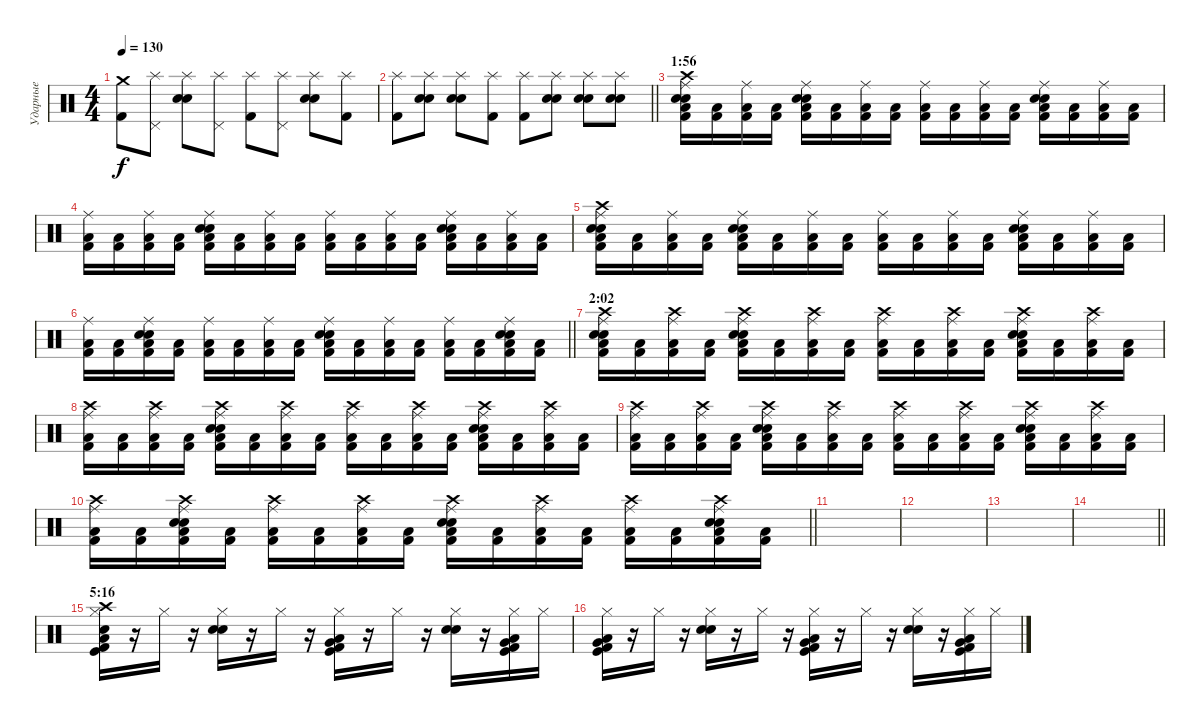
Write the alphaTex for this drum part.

\track ("Ударные" "Ударные") {instrument percussion}
\staff {score}
\articulation defaults
\ts (4 4)
\tempo 130
\clef neutral
\ks c
("Kick (hit) 2" "Crash medium (hit)").8{dy f} ("Pedal Hi-Hat (hit)" "Splash (hit)").8 ("Snare (hit) 2" "Splash (hit)" "Electric Snare (hit)").8 ("Pedal Hi-Hat (hit)" "Splash (hit)").8 ("Kick (hit) 2" "Splash (hit)").8 ("Pedal Hi-Hat (hit)" "Splash (hit)").8 ("Snare (hit) 2" "Splash (hit)" "Electric Snare (hit)").8 ("Kick (hit) 2" "Splash (hit)").8 |
\barLineRight lightlight
("Kick (hit) 2" "Splash (hit)").8 ("Snare (hit) 2" "Splash (hit)" "Electric Snare (hit)").8 ("Snare (hit) 2" "Splash (hit)" "Electric Snare (hit)").8 ("Kick (hit) 2" "Splash (hit)").8 ("Kick (hit) 2" "Splash (hit)").8 ("Snare (hit) 2" "Splash (hit)" "Electric Snare (hit)").8 ("Snare (hit) 2" "Splash (hit)" "Electric Snare (hit)").8 ("Snare (hit) 2" "Splash (hit)" "Electric Snare (hit)").8 |
\section ("" "1:56")
("Low Floor Tom (hit)" "Electric Snare (hit)" "Snare (hit) 2" "Ride (middle)" "Crash high (hit)" "Kick (hit) 2").16 ("Low Floor Tom (hit)" "Kick (hit) 2").16 ("Low Floor Tom (hit)" "Ride (middle)" "Kick (hit) 2").16 ("Low Floor Tom (hit)" "Kick (hit) 2").16 ("Low Floor Tom (hit)" "Electric Snare (hit)" "Snare (hit) 2" "Ride (middle)" "Kick (hit) 2").16 ("Low Floor Tom (hit)" "Kick (hit) 2").16 ("Low Floor Tom (hit)" "Ride (middle)" "Kick (hit) 2").16 ("Low Floor Tom (hit)" "Kick (hit) 2").16 ("Low Floor Tom (hit)" "Ride (middle)" "Kick (hit) 2").16 ("Low Floor Tom (hit)" "Kick (hit) 2").16 ("Low Floor Tom (hit)" "Ride (middle)" "Kick (hit) 2").16 ("Low Floor Tom (hit)" "Kick (hit) 2").16 ("Low Floor Tom (hit)" "Electric Snare (hit)" "Snare (hit) 2" "Ride (middle)" "Kick (hit) 2").16 ("Low Floor Tom (hit)" "Kick (hit) 2").16 ("Low Floor Tom (hit)" "Ride (middle)" "Kick (hit) 2").16 ("Low Floor Tom (hit)" "Kick (hit) 2").16 |
("Low Floor Tom (hit)" "Ride (middle)" "Kick (hit) 2").16 ("Low Floor Tom (hit)" "Kick (hit) 2").16 ("Low Floor Tom (hit)" "Ride (middle)" "Kick (hit) 2").16 ("Low Floor Tom (hit)" "Kick (hit) 2").16 ("Low Floor Tom (hit)" "Electric Snare (hit)" "Snare (hit) 2" "Ride (middle)" "Kick (hit) 2").16 ("Low Floor Tom (hit)" "Kick (hit) 2").16 ("Low Floor Tom (hit)" "Ride (middle)" "Kick (hit) 2").16 ("Low Floor Tom (hit)" "Kick (hit) 2").16 ("Low Floor Tom (hit)" "Ride (middle)" "Kick (hit) 2").16 ("Low Floor Tom (hit)" "Kick (hit) 2").16 ("Low Floor Tom (hit)" "Ride (middle)" "Kick (hit) 2").16 ("Low Floor Tom (hit)" "Kick (hit) 2").16 ("Low Floor Tom (hit)" "Electric Snare (hit)" "Snare (hit) 2" "Ride (middle)" "Kick (hit) 2").16 ("Low Floor Tom (hit)" "Kick (hit) 2").16 ("Low Floor Tom (hit)" "Ride (middle)" "Kick (hit) 2").16 ("Low Floor Tom (hit)" "Kick (hit) 2").16 |
("Low Floor Tom (hit)" "Electric Snare (hit)" "Snare (hit) 2" "Ride (middle)" "Crash high (hit)" "Kick (hit) 2").16 ("Low Floor Tom (hit)" "Kick (hit) 2").16 ("Low Floor Tom (hit)" "Ride (middle)" "Kick (hit) 2").16 ("Low Floor Tom (hit)" "Kick (hit) 2").16 ("Low Floor Tom (hit)" "Electric Snare (hit)" "Snare (hit) 2" "Ride (middle)" "Kick (hit) 2").16 ("Low Floor Tom (hit)" "Kick (hit) 2").16 ("Low Floor Tom (hit)" "Ride (middle)" "Kick (hit) 2").16 ("Low Floor Tom (hit)" "Kick (hit) 2").16 ("Low Floor Tom (hit)" "Ride (middle)" "Kick (hit) 2").16 ("Low Floor Tom (hit)" "Kick (hit) 2").16 ("Low Floor Tom (hit)" "Ride (middle)" "Kick (hit) 2").16 ("Low Floor Tom (hit)" "Kick (hit) 2").16 ("Low Floor Tom (hit)" "Electric Snare (hit)" "Snare (hit) 2" "Ride (middle)" "Kick (hit) 2").16 ("Low Floor Tom (hit)" "Kick (hit) 2").16 ("Low Floor Tom (hit)" "Ride (middle)" "Kick (hit) 2").16 ("Low Floor Tom (hit)" "Kick (hit) 2").16 |
\barLineRight lightlight
("Low Floor Tom (hit)" "Ride (middle)" "Kick (hit) 2").16 ("Low Floor Tom (hit)" "Kick (hit) 2").16 ("Low Floor Tom (hit)" "Electric Snare (hit)" "Snare (hit) 2" "Ride (middle)" "Kick (hit) 2").16 ("Low Floor Tom (hit)" "Kick (hit) 2").16 ("Low Floor Tom (hit)" "Ride (middle)" "Kick (hit) 2").16 ("Low Floor Tom (hit)" "Kick (hit) 2").16 ("Low Floor Tom (hit)" "Ride (middle)" "Kick (hit) 2").16 ("Low Floor Tom (hit)" "Kick (hit) 2").16 ("Low Floor Tom (hit)" "Electric Snare (hit)" "Snare (hit) 2" "Ride (middle)" "Kick (hit) 2").16 ("Low Floor Tom (hit)" "Kick (hit) 2").16 ("Low Floor Tom (hit)" "Ride (middle)" "Kick (hit) 2").16 ("Low Floor Tom (hit)" "Kick (hit) 2").16 ("Low Floor Tom (hit)" "Ride (middle)" "Kick (hit) 2").16 ("Low Floor Tom (hit)" "Kick (hit) 2").16 ("Low Floor Tom (hit)" "Electric Snare (hit)" "Snare (hit) 2" "Ride (middle)" "Kick (hit) 2").16 ("Low Floor Tom (hit)" "Kick (hit) 2").16 |
\section ("" "2:02")
("Low Floor Tom (hit)" "Electric Snare (hit)" "Snare (hit) 2" "Ride (middle)" "Crash high (hit)" "Kick (hit) 2").16 ("Low Floor Tom (hit)" "Kick (hit) 2").16 ("Low Floor Tom (hit)" "Ride (middle)" "Crash high (hit)" "Kick (hit) 2").16 ("Low Floor Tom (hit)" "Kick (hit) 2").16 ("Low Floor Tom (hit)" "Electric Snare (hit)" "Snare (hit) 2" "Ride (middle)" "Crash high (hit)" "Kick (hit) 2").16 ("Low Floor Tom (hit)" "Kick (hit) 2").16 ("Low Floor Tom (hit)" "Ride (middle)" "Crash high (hit)" "Kick (hit) 2").16 ("Low Floor Tom (hit)" "Kick (hit) 2").16 ("Low Floor Tom (hit)" "Ride (middle)" "Crash high (hit)" "Kick (hit) 2").16 ("Low Floor Tom (hit)" "Kick (hit) 2").16 ("Low Floor Tom (hit)" "Ride (middle)" "Crash high (hit)" "Kick (hit) 2").16 ("Low Floor Tom (hit)" "Kick (hit) 2").16 ("Low Floor Tom (hit)" "Electric Snare (hit)" "Snare (hit) 2" "Ride (middle)" "Crash high (hit)" "Kick (hit) 2").16 ("Low Floor Tom (hit)" "Kick (hit) 2").16 ("Low Floor Tom (hit)" "Ride (middle)" "Crash high (hit)" "Kick (hit) 2").16 ("Low Floor Tom (hit)" "Kick (hit) 2").16 |
("Low Floor Tom (hit)" "Ride (middle)" "Crash high (hit)" "Kick (hit) 2").16 ("Low Floor Tom (hit)" "Kick (hit) 2").16 ("Low Floor Tom (hit)" "Ride (middle)" "Crash high (hit)" "Kick (hit) 2").16 ("Low Floor Tom (hit)" "Kick (hit) 2").16 ("Low Floor Tom (hit)" "Electric Snare (hit)" "Snare (hit) 2" "Ride (middle)" "Crash high (hit)" "Kick (hit) 2").16 ("Low Floor Tom (hit)" "Kick (hit) 2").16 ("Low Floor Tom (hit)" "Ride (middle)" "Crash high (hit)" "Kick (hit) 2").16 ("Low Floor Tom (hit)" "Kick (hit) 2").16 ("Low Floor Tom (hit)" "Ride (middle)" "Crash high (hit)" "Kick (hit) 2").16 ("Low Floor Tom (hit)" "Kick (hit) 2").16 ("Low Floor Tom (hit)" "Ride (middle)" "Crash high (hit)" "Kick (hit) 2").16 ("Low Floor Tom (hit)" "Kick (hit) 2").16 ("Low Floor Tom (hit)" "Electric Snare (hit)" "Snare (hit) 2" "Ride (middle)" "Crash high (hit)" "Kick (hit) 2").16 ("Low Floor Tom (hit)" "Kick (hit) 2").16 ("Low Floor Tom (hit)" "Ride (middle)" "Crash high (hit)" "Kick (hit) 2").16 ("Low Floor Tom (hit)" "Kick (hit) 2").16 |
("Low Floor Tom (hit)" "Ride (middle)" "Crash high (hit)" "Kick (hit) 2").16 ("Low Floor Tom (hit)" "Kick (hit) 2").16 ("Low Floor Tom (hit)" "Ride (middle)" "Crash high (hit)" "Kick (hit) 2").16 ("Low Floor Tom (hit)" "Kick (hit) 2").16 ("Low Floor Tom (hit)" "Electric Snare (hit)" "Snare (hit) 2" "Ride (middle)" "Crash high (hit)" "Kick (hit) 2").16 ("Low Floor Tom (hit)" "Kick (hit) 2").16 ("Low Floor Tom (hit)" "Ride (middle)" "Crash high (hit)" "Kick (hit) 2").16 ("Low Floor Tom (hit)" "Kick (hit) 2").16 ("Low Floor Tom (hit)" "Ride (middle)" "Crash high (hit)" "Kick (hit) 2").16 ("Low Floor Tom (hit)" "Kick (hit) 2").16 ("Low Floor Tom (hit)" "Ride (middle)" "Crash high (hit)" "Kick (hit) 2").16 ("Low Floor Tom (hit)" "Kick (hit) 2").16 ("Low Floor Tom (hit)" "Electric Snare (hit)" "Snare (hit) 2" "Ride (middle)" "Crash high (hit)" "Kick (hit) 2").16 ("Low Floor Tom (hit)" "Kick (hit) 2").16 ("Low Floor Tom (hit)" "Ride (middle)" "Crash high (hit)" "Kick (hit) 2").16 ("Low Floor Tom (hit)" "Kick (hit) 2").16 |
\barLineRight lightlight
("Low Floor Tom (hit)" "Ride (middle)" "Crash high (hit)" "Kick (hit) 2").16 ("Low Floor Tom (hit)" "Kick (hit) 2").16 ("Low Floor Tom (hit)" "Electric Snare (hit)" "Snare (hit) 2" "Ride (middle)" "Crash high (hit)" "Kick (hit) 2").16 ("Low Floor Tom (hit)" "Kick (hit) 2").16 ("Low Floor Tom (hit)" "Ride (middle)" "Crash high (hit)" "Kick (hit) 2").16 ("Low Floor Tom (hit)" "Kick (hit) 2").16 ("Low Floor Tom (hit)" "Ride (middle)" "Crash high (hit)" "Kick (hit) 2").16 ("Low Floor Tom (hit)" "Kick (hit) 2").16 ("Low Floor Tom (hit)" "Electric Snare (hit)" "Snare (hit) 2" "Ride (middle)" "Crash high (hit)" "Kick (hit) 2").16 ("Low Floor Tom (hit)" "Kick (hit) 2").16 ("Low Floor Tom (hit)" "Ride (middle)" "Crash high (hit)" "Kick (hit) 2").16 ("Low Floor Tom (hit)" "Kick (hit) 2").16 ("Low Floor Tom (hit)" "Ride (middle)" "Crash high (hit)" "Kick (hit) 2").16 ("Low Floor Tom (hit)" "Kick (hit) 2").16 ("Low Floor Tom (hit)" "Electric Snare (hit)" "Snare (hit) 2" "Ride (middle)" "Crash high (hit)" "Kick (hit) 2").16 ("Low Floor Tom (hit)" "Kick (hit) 2").16 |
|
|
|
\barLineRight lightlight
|
\section ("" "5:16")
("Crash high (hit)" "Hi-Hat (closed)" "Low Floor Tom (hit)" "Snare (hit) 2" "Kick (hit) 2" "Kick (hit)").16 r.16 "Hi-Hat (closed)".16 r.16 ("Hi-Hat (closed)" "Snare (hit) 2" "Electric Snare (hit)").16 r.16 "Hi-Hat (closed)".16 r.16 ("Hi-Hat (closed)" "Kick (hit) 2" "Very Low Tom (hit)" "Kick (hit)" "Low Floor Tom (hit)").16 r.16 "Hi-Hat (closed)".16 r.16 ("Hi-Hat (closed)" "Snare (hit) 2" "Electric Snare (hit)").16 r.16 ("Hi-Hat (closed)" "Kick (hit) 2" "Very Low Tom (hit)" "Kick (hit)" "Low Floor Tom (hit)").16 "Hi-Hat (closed)".16 |
("Hi-Hat (closed)" "Kick (hit) 2" "Very Low Tom (hit)" "Kick (hit)" "Low Floor Tom (hit)").16 r.16 "Hi-Hat (closed)".16 r.16 ("Hi-Hat (closed)" "Snare (hit) 2" "Electric Snare (hit)").16 r.16 "Hi-Hat (closed)".16 r.16 ("Hi-Hat (closed)" "Kick (hit) 2" "Very Low Tom (hit)" "Kick (hit)" "Low Floor Tom (hit)").16 r.16 "Hi-Hat (closed)".16 r.16 ("Hi-Hat (closed)" "Snare (hit) 2" "Electric Snare (hit)").16 r.16 ("Hi-Hat (closed)" "Kick (hit) 2" "Very Low Tom (hit)" "Kick (hit)" "Low Floor Tom (hit)").16 "Hi-Hat (closed)".16
